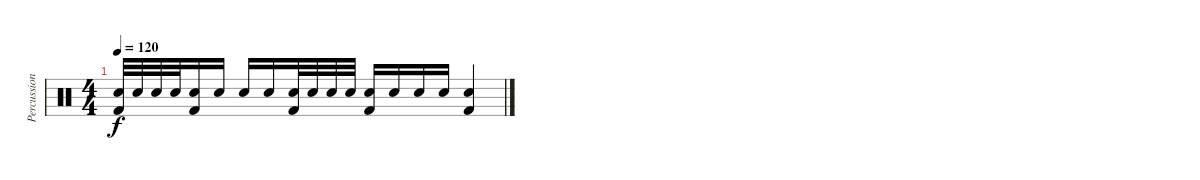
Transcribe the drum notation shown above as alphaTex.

\track ("Percussion" "Percussion") {instrument percussion}
\staff {score}
\articulation defaults
\ts (4 4)
\tempo 120
\clef neutral
\ks c
("Electric Snare (hit)" "Kick (hit) 2").32{dy f} "Electric Snare (hit)".32 "Electric Snare (hit)".32 "Electric Snare (hit)".32 ("Electric Snare (hit)" "Kick (hit) 2").16 "Electric Snare (hit)".16 "Electric Snare (hit)".16 "Electric Snare (hit)".16 ("Electric Snare (hit)" "Kick (hit) 2").32 "Electric Snare (hit)".32 "Electric Snare (hit)".32 "Electric Snare (hit)".32 ("Electric Snare (hit)" "Kick (hit) 2").16 "Electric Snare (hit)".16 "Electric Snare (hit)".16 "Electric Snare (hit)".16 ("Electric Snare (hit)" "Kick (hit) 2").4
